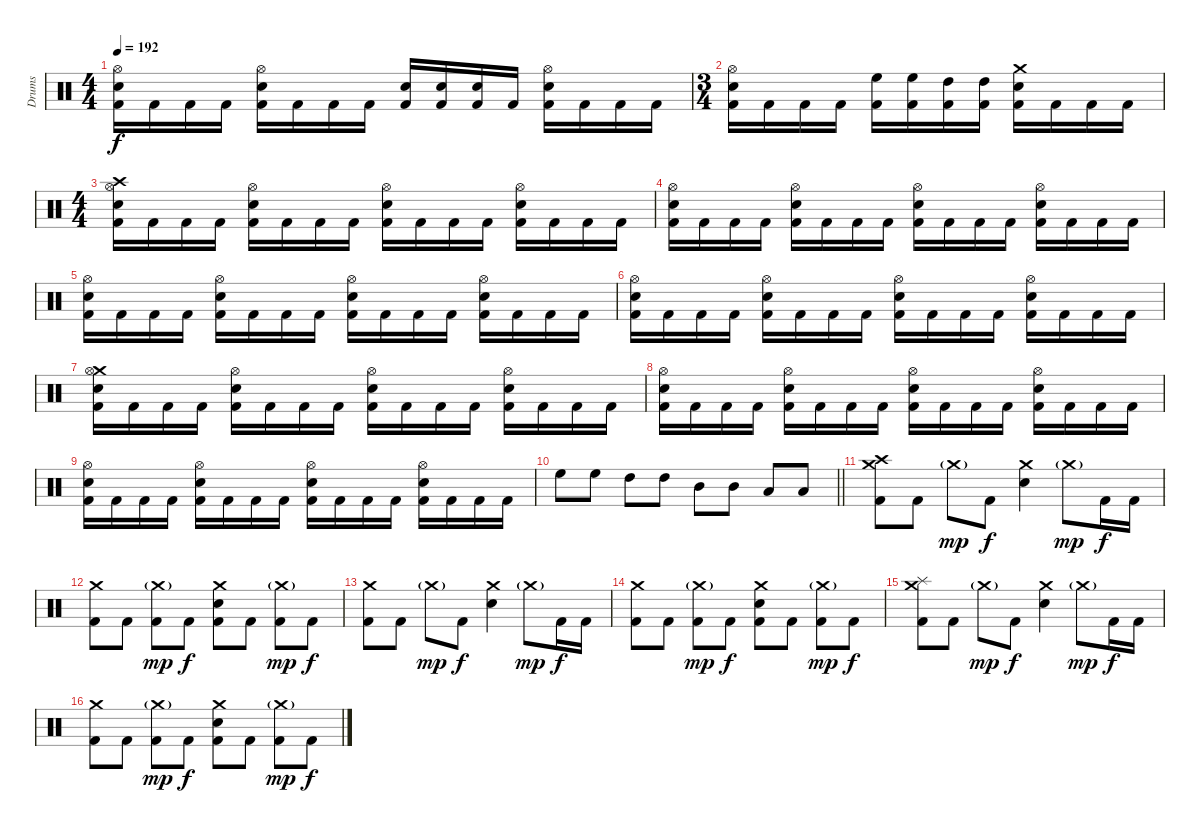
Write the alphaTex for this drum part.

\track ("Drums" "Drums") {instrument percussion}
\staff {score}
\articulation defaults
\ts (4 4)
\tempo 192
\clef neutral
\ks c
("Hi-Hat (open)" "Electric Snare (hit)" "Kick (hit) 2").16{dy f} "Kick (hit) 2".16 "Kick (hit) 2".16 "Kick (hit) 2".16 ("Hi-Hat (open)" "Electric Snare (hit)" "Kick (hit) 2").16 "Kick (hit) 2".16 "Kick (hit) 2".16 "Kick (hit) 2".16 ("Electric Snare (hit)" "Kick (hit) 2").16 ("Electric Snare (hit)" "Kick (hit) 2").16 ("Electric Snare (hit)" "Kick (hit) 2").16 "Kick (hit) 2".16 ("Hi-Hat (open)" "Electric Snare (hit)" "Kick (hit) 2").16 "Kick (hit) 2".16 "Kick (hit) 2".16 "Kick (hit) 2".16 |
\ts (3 4)
("Hi-Hat (open)" "Electric Snare (hit)" "Kick (hit) 2").16 "Kick (hit) 2".16 "Kick (hit) 2".16 "Kick (hit) 2".16 ("High Floor Tom (hit)" "Kick (hit) 2").16 ("High Floor Tom (hit)" "Kick (hit) 2").16 ("High Tom (hit)" "Kick (hit) 2").16 ("High Tom (hit)" "Kick (hit) 2").16 ("Crash medium (hit)" "Electric Snare (hit)" "Kick (hit) 2").16 "Kick (hit) 2".16 "Kick (hit) 2".16 "Kick (hit) 2".16 |
\ts (4 4)
("Crash high (hit)" "Hi-Hat (open)" "Electric Snare (hit)" "Kick (hit) 2").16 "Kick (hit) 2".16 "Kick (hit) 2".16 "Kick (hit) 2".16 ("Hi-Hat (open)" "Electric Snare (hit)" "Kick (hit) 2").16 "Kick (hit) 2".16 "Kick (hit) 2".16 "Kick (hit) 2".16 ("Hi-Hat (open)" "Electric Snare (hit)" "Kick (hit) 2").16 "Kick (hit) 2".16 "Kick (hit) 2".16 "Kick (hit) 2".16 ("Hi-Hat (open)" "Electric Snare (hit)" "Kick (hit) 2").16 "Kick (hit) 2".16 "Kick (hit) 2".16 "Kick (hit) 2".16 |
("Hi-Hat (open)" "Electric Snare (hit)" "Kick (hit) 2").16 "Kick (hit) 2".16 "Kick (hit) 2".16 "Kick (hit) 2".16 ("Hi-Hat (open)" "Electric Snare (hit)" "Kick (hit) 2").16 "Kick (hit) 2".16 "Kick (hit) 2".16 "Kick (hit) 2".16 ("Hi-Hat (open)" "Electric Snare (hit)" "Kick (hit) 2").16 "Kick (hit) 2".16 "Kick (hit) 2".16 "Kick (hit) 2".16 ("Hi-Hat (open)" "Electric Snare (hit)" "Kick (hit) 2").16 "Kick (hit) 2".16 "Kick (hit) 2".16 "Kick (hit) 2".16 |
("Hi-Hat (open)" "Electric Snare (hit)" "Kick (hit) 2").16 "Kick (hit) 2".16 "Kick (hit) 2".16 "Kick (hit) 2".16 ("Hi-Hat (open)" "Electric Snare (hit)" "Kick (hit) 2").16 "Kick (hit) 2".16 "Kick (hit) 2".16 "Kick (hit) 2".16 ("Hi-Hat (open)" "Electric Snare (hit)" "Kick (hit) 2").16 "Kick (hit) 2".16 "Kick (hit) 2".16 "Kick (hit) 2".16 ("Hi-Hat (open)" "Electric Snare (hit)" "Kick (hit) 2").16 "Kick (hit) 2".16 "Kick (hit) 2".16 "Kick (hit) 2".16 |
("Hi-Hat (open)" "Electric Snare (hit)" "Kick (hit) 2").16 "Kick (hit) 2".16 "Kick (hit) 2".16 "Kick (hit) 2".16 ("Hi-Hat (open)" "Electric Snare (hit)" "Kick (hit) 2").16 "Kick (hit) 2".16 "Kick (hit) 2".16 "Kick (hit) 2".16 ("Hi-Hat (open)" "Electric Snare (hit)" "Kick (hit) 2").16 "Kick (hit) 2".16 "Kick (hit) 2".16 "Kick (hit) 2".16 ("Hi-Hat (open)" "Electric Snare (hit)" "Kick (hit) 2").16 "Kick (hit) 2".16 "Kick (hit) 2".16 "Kick (hit) 2".16 |
("Crash medium (hit)" "Hi-Hat (open)" "Electric Snare (hit)" "Kick (hit) 2").16 "Kick (hit) 2".16 "Kick (hit) 2".16 "Kick (hit) 2".16 ("Hi-Hat (open)" "Electric Snare (hit)" "Kick (hit) 2").16 "Kick (hit) 2".16 "Kick (hit) 2".16 "Kick (hit) 2".16 ("Hi-Hat (open)" "Electric Snare (hit)" "Kick (hit) 2").16 "Kick (hit) 2".16 "Kick (hit) 2".16 "Kick (hit) 2".16 ("Hi-Hat (open)" "Electric Snare (hit)" "Kick (hit) 2").16 "Kick (hit) 2".16 "Kick (hit) 2".16 "Kick (hit) 2".16 |
("Hi-Hat (open)" "Electric Snare (hit)" "Kick (hit) 2").16 "Kick (hit) 2".16 "Kick (hit) 2".16 "Kick (hit) 2".16 ("Hi-Hat (open)" "Electric Snare (hit)" "Kick (hit) 2").16 "Kick (hit) 2".16 "Kick (hit) 2".16 "Kick (hit) 2".16 ("Hi-Hat (open)" "Electric Snare (hit)" "Kick (hit) 2").16 "Kick (hit) 2".16 "Kick (hit) 2".16 "Kick (hit) 2".16 ("Hi-Hat (open)" "Electric Snare (hit)" "Kick (hit) 2").16 "Kick (hit) 2".16 "Kick (hit) 2".16 "Kick (hit) 2".16 |
("Hi-Hat (open)" "Electric Snare (hit)" "Kick (hit) 2").16 "Kick (hit) 2".16 "Kick (hit) 2".16 "Kick (hit) 2".16 ("Hi-Hat (open)" "Electric Snare (hit)" "Kick (hit) 2").16 "Kick (hit) 2".16 "Kick (hit) 2".16 "Kick (hit) 2".16 ("Hi-Hat (open)" "Electric Snare (hit)" "Kick (hit) 2").16 "Kick (hit) 2".16 "Kick (hit) 2".16 "Kick (hit) 2".16 ("Hi-Hat (open)" "Electric Snare (hit)" "Kick (hit) 2").16 "Kick (hit) 2".16 "Kick (hit) 2".16 "Kick (hit) 2".16 |
\barLineRight lightlight "High Floor Tom (hit)".8 "High Floor Tom (hit)".8 "High Tom (hit)".8 "High Tom (hit)".8 "Mid Tom (hit)".8 "Mid Tom (hit)".8 "Low Tom (hit)".8 "Low Tom (hit)".8
|
("Crash high (hit)" "Crash medium (hit)" "Kick (hit) 2").8 "Kick (hit) 2".8 "Crash medium (hit)"{g}.8{dy mp} "Kick (hit) 2".8{dy f} ("Crash medium (hit)" "Electric Snare (hit)").4 "Crash medium (hit)"{g}.8{dy mp} "Kick (hit) 2".16{dy f} "Kick (hit) 2".16 |
("Crash medium (hit)" "Kick (hit) 2").8 "Kick (hit) 2".8 ("Crash medium (hit)"{g} "Kick (hit) 2").8{dy mp} "Kick (hit) 2".8{dy f} ("Crash medium (hit)" "Electric Snare (hit)" "Kick (hit) 2").8 "Kick (hit) 2".8 ("Crash medium (hit)"{g} "Kick (hit) 2").8{dy mp} "Kick (hit) 2".8{dy f} |
("Crash medium (hit)" "Kick (hit) 2").8 "Kick (hit) 2".8 "Crash medium (hit)"{g}.8{dy mp} "Kick (hit) 2".8{dy f} ("Crash medium (hit)" "Electric Snare (hit)").4 "Crash medium (hit)"{g}.8{dy mp} "Kick (hit) 2".16{dy f} "Kick (hit) 2".16 |
("Crash medium (hit)" "Kick (hit) 2").8 "Kick (hit) 2".8 ("Crash medium (hit)"{g} "Kick (hit) 2").8{dy mp} "Kick (hit) 2".8{dy f} ("Crash medium (hit)" "Electric Snare (hit)" "Kick (hit) 2").8 "Kick (hit) 2".8 ("Crash medium (hit)"{g} "Kick (hit) 2").8{dy mp} "Kick (hit) 2".8{dy f} |
("Splash (hit)" "Crash medium (hit)" "Kick (hit) 2").8 "Kick (hit) 2".8 "Crash medium (hit)"{g}.8{dy mp} "Kick (hit) 2".8{dy f} ("Crash medium (hit)" "Electric Snare (hit)").4 "Crash medium (hit)"{g}.8{dy mp} "Kick (hit) 2".16{dy f} "Kick (hit) 2".16 |
("Crash medium (hit)" "Kick (hit) 2").8 "Kick (hit) 2".8 ("Crash medium (hit)"{g} "Kick (hit) 2").8{dy mp} "Kick (hit) 2".8{dy f} ("Crash medium (hit)" "Electric Snare (hit)" "Kick (hit) 2").8 "Kick (hit) 2".8 ("Crash medium (hit)"{g} "Kick (hit) 2").8{dy mp} "Kick (hit) 2".8{dy f}
